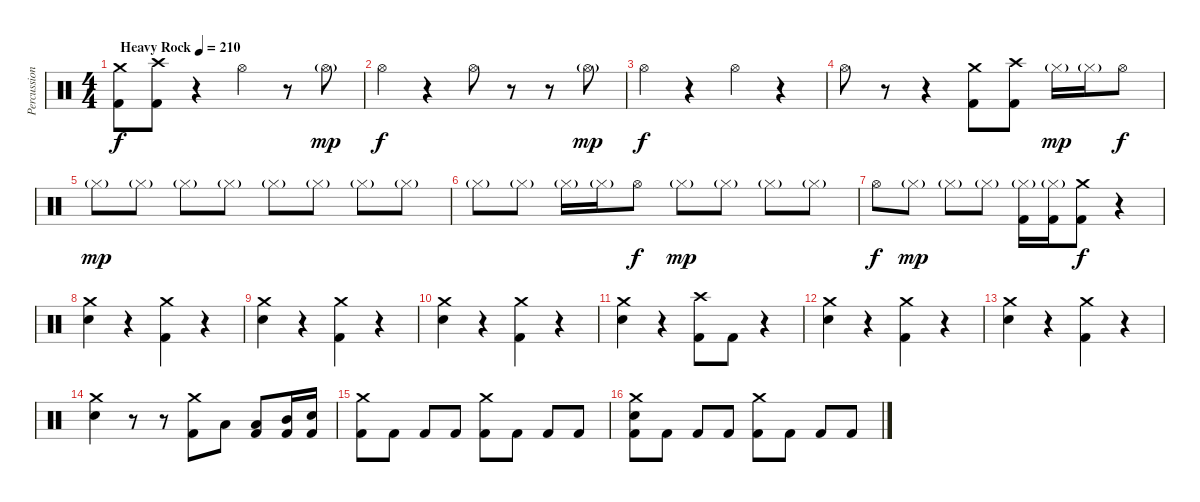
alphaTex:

\track ("Percussion" "Percussion") {instrument percussion}
\staff {score}
\articulation defaults
\ts (4 4)
\tempo (210 "Heavy Rock")
\clef neutral
\ks c
("Crash medium (hit)" "Kick (hit) 2").8{dy f} ("Crash high (hit)" "Kick (hit) 2").8 r.4 "Hi-Hat (open)".4 r.8 "Hi-Hat (open)"{g}.8{dy mp} |
"Hi-Hat (open)".4{dy f} r.4 "Hi-Hat (open)".8 r.8 r.8 "Hi-Hat (open)"{g}.8{dy mp} |
"Hi-Hat (open)".4{dy f} r.4 "Hi-Hat (open)".4 r.4 |
"Hi-Hat (open)".8 r.8 r.4 ("Crash medium (hit)" "Kick (hit) 2").8 ("Crash high (hit)" "Kick (hit) 2").8 "Hi-Hat (closed)"{g}.16{dy mp} "Hi-Hat (closed)"{g}.16 "Hi-Hat (open)".8{dy f} |
"Hi-Hat (closed)"{g}.8{dy mp} "Hi-Hat (closed)"{g}.8 "Hi-Hat (closed)"{g}.8 "Hi-Hat (closed)"{g}.8 "Hi-Hat (closed)"{g}.8 "Hi-Hat (closed)"{g}.8 "Hi-Hat (closed)"{g}.8 "Hi-Hat (closed)"{g}.8 |
"Hi-Hat (closed)"{g}.8 "Hi-Hat (closed)"{g}.8 "Hi-Hat (closed)"{g}.16 "Hi-Hat (closed)"{g}.16 "Hi-Hat (open)".8{dy f} "Hi-Hat (closed)"{g}.8{dy mp} "Hi-Hat (closed)"{g}.8 "Hi-Hat (closed)"{g}.8 "Hi-Hat (closed)"{g}.8 |
"Hi-Hat (open)".8{dy f} "Hi-Hat (closed)"{g}.8{dy mp} "Hi-Hat (closed)"{g}.8 "Hi-Hat (closed)"{g}.8 ("Hi-Hat (closed)"{g} "Kick (hit) 2").16 ("Hi-Hat (closed)"{g} "Kick (hit) 2").16 ("Crash medium (hit)" "Kick (hit) 2").8{dy f} r.4 |
("Crash medium (hit)" "Electric Snare (hit)").4 r.4 ("Crash medium (hit)" "Kick (hit) 2").4 r.4 |
("Crash medium (hit)" "Electric Snare (hit)").4 r.4 ("Crash medium (hit)" "Kick (hit) 2").4 r.4 |
("Crash medium (hit)" "Electric Snare (hit)").4 r.4 ("Crash medium (hit)" "Kick (hit) 2").4 r.4 |
("Crash medium (hit)" "Electric Snare (hit)").4 r.4 ("Crash high (hit)" "Kick (hit) 2").8 "Kick (hit) 2".8 r.4 |
("Crash medium (hit)" "Electric Snare (hit)").4 r.4 ("Crash medium (hit)" "Kick (hit) 2").4 r.4 |
("Crash medium (hit)" "Electric Snare (hit)").4 r.4 ("Crash medium (hit)" "Kick (hit) 2").4 r.4 |
("Crash medium (hit)" "Electric Snare (hit)").4 r.8 r.8 ("Crash medium (hit)" "Kick (hit) 2").8 "Low Tom (hit)".8 ("Low Tom (hit)" "Kick (hit) 2").8 ("Mid Tom (hit)" "Kick (hit) 2").16 ("Electric Snare (hit)" "Kick (hit) 2").16 |
("Crash medium (hit)" "Kick (hit) 2").8 "Kick (hit) 2".8 "Kick (hit) 2".8 "Kick (hit) 2".8 ("Crash medium (hit)" "Kick (hit) 2").8 "Kick (hit) 2".8 "Kick (hit) 2".8 "Kick (hit) 2".8 |
("Crash medium (hit)" "Electric Snare (hit)" "Kick (hit) 2").8 "Kick (hit) 2".8 "Kick (hit) 2".8 "Kick (hit) 2".8 ("Crash medium (hit)" "Kick (hit) 2").8 "Kick (hit) 2".8 "Kick (hit) 2".8 "Kick (hit) 2".8
